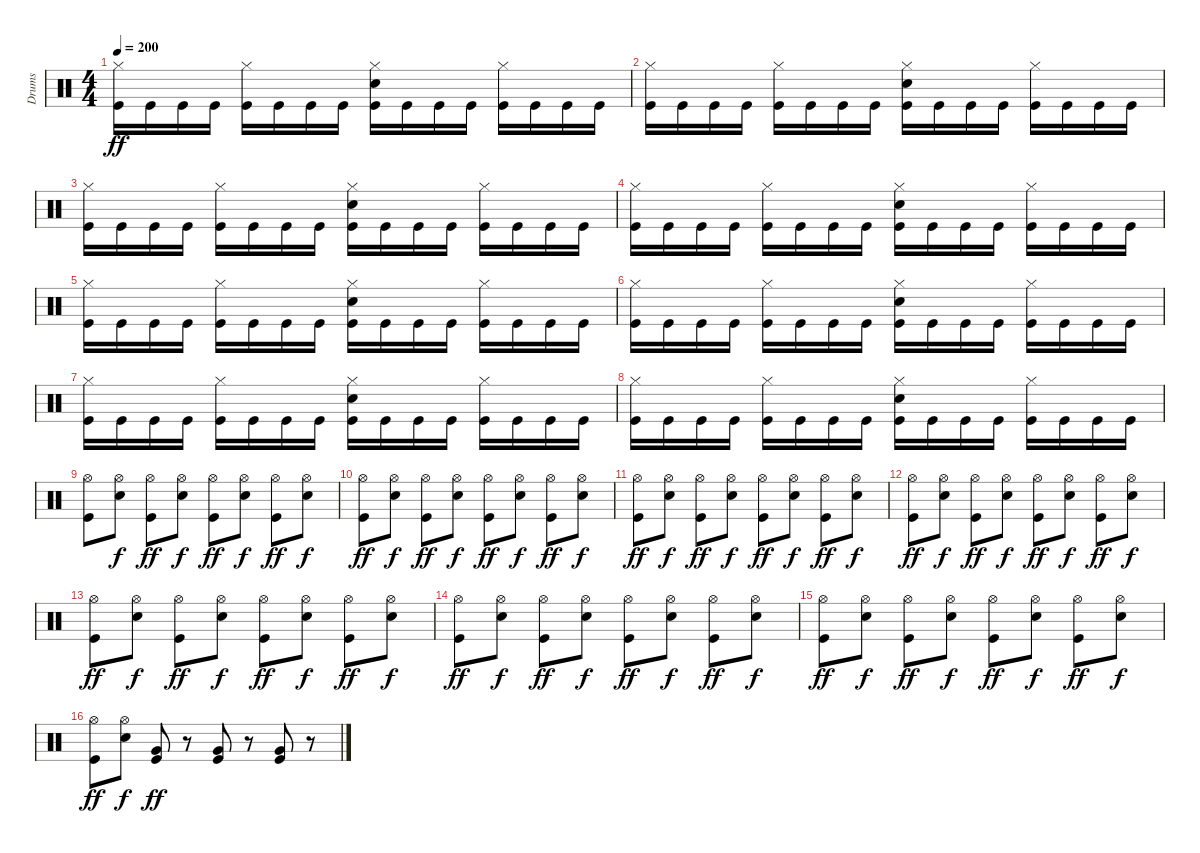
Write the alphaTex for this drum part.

\track ("Drums" "Drums") {instrument percussion}
\staff {score}
\articulation defaults
\ts (4 4)
\tempo 200
\clef neutral
\ks c
("Hi-Hat (closed)" "Kick (hit)").16{dy ff} "Kick (hit)".16 "Kick (hit)".16 "Kick (hit)".16 ("Hi-Hat (closed)" "Kick (hit)").16 "Kick (hit)".16 "Kick (hit)".16 "Kick (hit)".16 ("Hi-Hat (closed)" "Electric Snare (hit)" "Kick (hit)").16 "Kick (hit)".16 "Kick (hit)".16 "Kick (hit)".16 ("Hi-Hat (closed)" "Kick (hit)").16 "Kick (hit)".16 "Kick (hit)".16 "Kick (hit)".16 |
("Hi-Hat (closed)" "Kick (hit)").16 "Kick (hit)".16 "Kick (hit)".16 "Kick (hit)".16 ("Hi-Hat (closed)" "Kick (hit)").16 "Kick (hit)".16 "Kick (hit)".16 "Kick (hit)".16 ("Hi-Hat (closed)" "Electric Snare (hit)" "Kick (hit)").16 "Kick (hit)".16 "Kick (hit)".16 "Kick (hit)".16 ("Hi-Hat (closed)" "Kick (hit)").16 "Kick (hit)".16 "Kick (hit)".16 "Kick (hit)".16 |
("Hi-Hat (closed)" "Kick (hit)").16 "Kick (hit)".16 "Kick (hit)".16 "Kick (hit)".16 ("Hi-Hat (closed)" "Kick (hit)").16 "Kick (hit)".16 "Kick (hit)".16 "Kick (hit)".16 ("Hi-Hat (closed)" "Electric Snare (hit)" "Kick (hit)").16 "Kick (hit)".16 "Kick (hit)".16 "Kick (hit)".16 ("Hi-Hat (closed)" "Kick (hit)").16 "Kick (hit)".16 "Kick (hit)".16 "Kick (hit)".16 |
("Hi-Hat (closed)" "Kick (hit)").16 "Kick (hit)".16 "Kick (hit)".16 "Kick (hit)".16 ("Hi-Hat (closed)" "Kick (hit)").16 "Kick (hit)".16 "Kick (hit)".16 "Kick (hit)".16 ("Hi-Hat (closed)" "Electric Snare (hit)" "Kick (hit)").16 "Kick (hit)".16 "Kick (hit)".16 "Kick (hit)".16 ("Hi-Hat (closed)" "Kick (hit)").16 "Kick (hit)".16 "Kick (hit)".16 "Kick (hit)".16 |
("Hi-Hat (closed)" "Kick (hit)").16 "Kick (hit)".16 "Kick (hit)".16 "Kick (hit)".16 ("Hi-Hat (closed)" "Kick (hit)").16 "Kick (hit)".16 "Kick (hit)".16 "Kick (hit)".16 ("Hi-Hat (closed)" "Electric Snare (hit)" "Kick (hit)").16 "Kick (hit)".16 "Kick (hit)".16 "Kick (hit)".16 ("Hi-Hat (closed)" "Kick (hit)").16 "Kick (hit)".16 "Kick (hit)".16 "Kick (hit)".16 |
("Hi-Hat (closed)" "Kick (hit)").16 "Kick (hit)".16 "Kick (hit)".16 "Kick (hit)".16 ("Hi-Hat (closed)" "Kick (hit)").16 "Kick (hit)".16 "Kick (hit)".16 "Kick (hit)".16 ("Hi-Hat (closed)" "Electric Snare (hit)" "Kick (hit)").16 "Kick (hit)".16 "Kick (hit)".16 "Kick (hit)".16 ("Hi-Hat (closed)" "Kick (hit)").16 "Kick (hit)".16 "Kick (hit)".16 "Kick (hit)".16 |
("Hi-Hat (closed)" "Kick (hit)").16 "Kick (hit)".16 "Kick (hit)".16 "Kick (hit)".16 ("Hi-Hat (closed)" "Kick (hit)").16 "Kick (hit)".16 "Kick (hit)".16 "Kick (hit)".16 ("Hi-Hat (closed)" "Electric Snare (hit)" "Kick (hit)").16 "Kick (hit)".16 "Kick (hit)".16 "Kick (hit)".16 ("Hi-Hat (closed)" "Kick (hit)").16 "Kick (hit)".16 "Kick (hit)".16 "Kick (hit)".16 |
("Hi-Hat (closed)" "Kick (hit)").16 "Kick (hit)".16 "Kick (hit)".16 "Kick (hit)".16 ("Hi-Hat (closed)" "Kick (hit)").16 "Kick (hit)".16 "Kick (hit)".16 "Kick (hit)".16 ("Hi-Hat (closed)" "Electric Snare (hit)" "Kick (hit)").16 "Kick (hit)".16 "Kick (hit)".16 "Kick (hit)".16 ("Hi-Hat (closed)" "Kick (hit)").16 "Kick (hit)".16 "Kick (hit)".16 "Kick (hit)".16 |
("Hi-Hat (open)" "Kick (hit)").8 ("Hi-Hat (open)" "Electric Snare (hit)").8{dy f} ("Hi-Hat (open)" "Kick (hit)").8{dy ff} ("Hi-Hat (open)" "Electric Snare (hit)").8{dy f} ("Hi-Hat (open)" "Kick (hit)").8{dy ff} ("Hi-Hat (open)" "Electric Snare (hit)").8{dy f} ("Hi-Hat (open)" "Kick (hit)").8{dy ff} ("Hi-Hat (open)" "Electric Snare (hit)").8{dy f} |
("Hi-Hat (open)" "Kick (hit)").8{dy ff} ("Hi-Hat (open)" "Electric Snare (hit)").8{dy f} ("Hi-Hat (open)" "Kick (hit)").8{dy ff} ("Hi-Hat (open)" "Electric Snare (hit)").8{dy f} ("Hi-Hat (open)" "Kick (hit)").8{dy ff} ("Hi-Hat (open)" "Electric Snare (hit)").8{dy f} ("Hi-Hat (open)" "Kick (hit)").8{dy ff} ("Hi-Hat (open)" "Electric Snare (hit)").8{dy f} |
("Hi-Hat (open)" "Kick (hit)").8{dy ff} ("Hi-Hat (open)" "Electric Snare (hit)").8{dy f} ("Hi-Hat (open)" "Kick (hit)").8{dy ff} ("Hi-Hat (open)" "Electric Snare (hit)").8{dy f} ("Hi-Hat (open)" "Kick (hit)").8{dy ff} ("Hi-Hat (open)" "Electric Snare (hit)").8{dy f} ("Hi-Hat (open)" "Kick (hit)").8{dy ff} ("Hi-Hat (open)" "Electric Snare (hit)").8{dy f} |
("Hi-Hat (open)" "Kick (hit)").8{dy ff} ("Hi-Hat (open)" "Electric Snare (hit)").8{dy f} ("Hi-Hat (open)" "Kick (hit)").8{dy ff} ("Hi-Hat (open)" "Electric Snare (hit)").8{dy f} ("Hi-Hat (open)" "Kick (hit)").8{dy ff} ("Hi-Hat (open)" "Electric Snare (hit)").8{dy f} ("Hi-Hat (open)" "Kick (hit)").8{dy ff} ("Hi-Hat (open)" "Electric Snare (hit)").8{dy f} |
("Hi-Hat (open)" "Kick (hit)").8{dy ff} ("Hi-Hat (open)" "Electric Snare (hit)").8{dy f} ("Hi-Hat (open)" "Kick (hit)").8{dy ff} ("Hi-Hat (open)" "Electric Snare (hit)").8{dy f} ("Hi-Hat (open)" "Kick (hit)").8{dy ff} ("Hi-Hat (open)" "Electric Snare (hit)").8{dy f} ("Hi-Hat (open)" "Kick (hit)").8{dy ff} ("Hi-Hat (open)" "Electric Snare (hit)").8{dy f} |
("Hi-Hat (open)" "Kick (hit)").8{dy ff} ("Hi-Hat (open)" "Electric Snare (hit)").8{dy f} ("Hi-Hat (open)" "Kick (hit)").8{dy ff} ("Hi-Hat (open)" "Electric Snare (hit)").8{dy f} ("Hi-Hat (open)" "Kick (hit)").8{dy ff} ("Hi-Hat (open)" "Electric Snare (hit)").8{dy f} ("Hi-Hat (open)" "Kick (hit)").8{dy ff} ("Hi-Hat (open)" "Electric Snare (hit)").8{dy f} |
("Hi-Hat (open)" "Kick (hit)").8{dy ff} ("Hi-Hat (open)" "Electric Snare (hit)").8{dy f} ("Hi-Hat (open)" "Kick (hit)").8{dy ff} ("Hi-Hat (open)" "Electric Snare (hit)").8{dy f} ("Hi-Hat (open)" "Kick (hit)").8{dy ff} ("Hi-Hat (open)" "Electric Snare (hit)").8{dy f} ("Hi-Hat (open)" "Kick (hit)").8{dy ff} ("Hi-Hat (open)" "Electric Snare (hit)").8{dy f} |
("Hi-Hat (open)" "Kick (hit)").8{dy ff} ("Hi-Hat (open)" "Electric Snare (hit)").8{dy f} ("Very Low Tom (hit)" "Kick (hit)").8{dy ff} r.8 ("Very Low Tom (hit)" "Kick (hit)").8 r.8 ("Very Low Tom (hit)" "Kick (hit)").8 r.8
